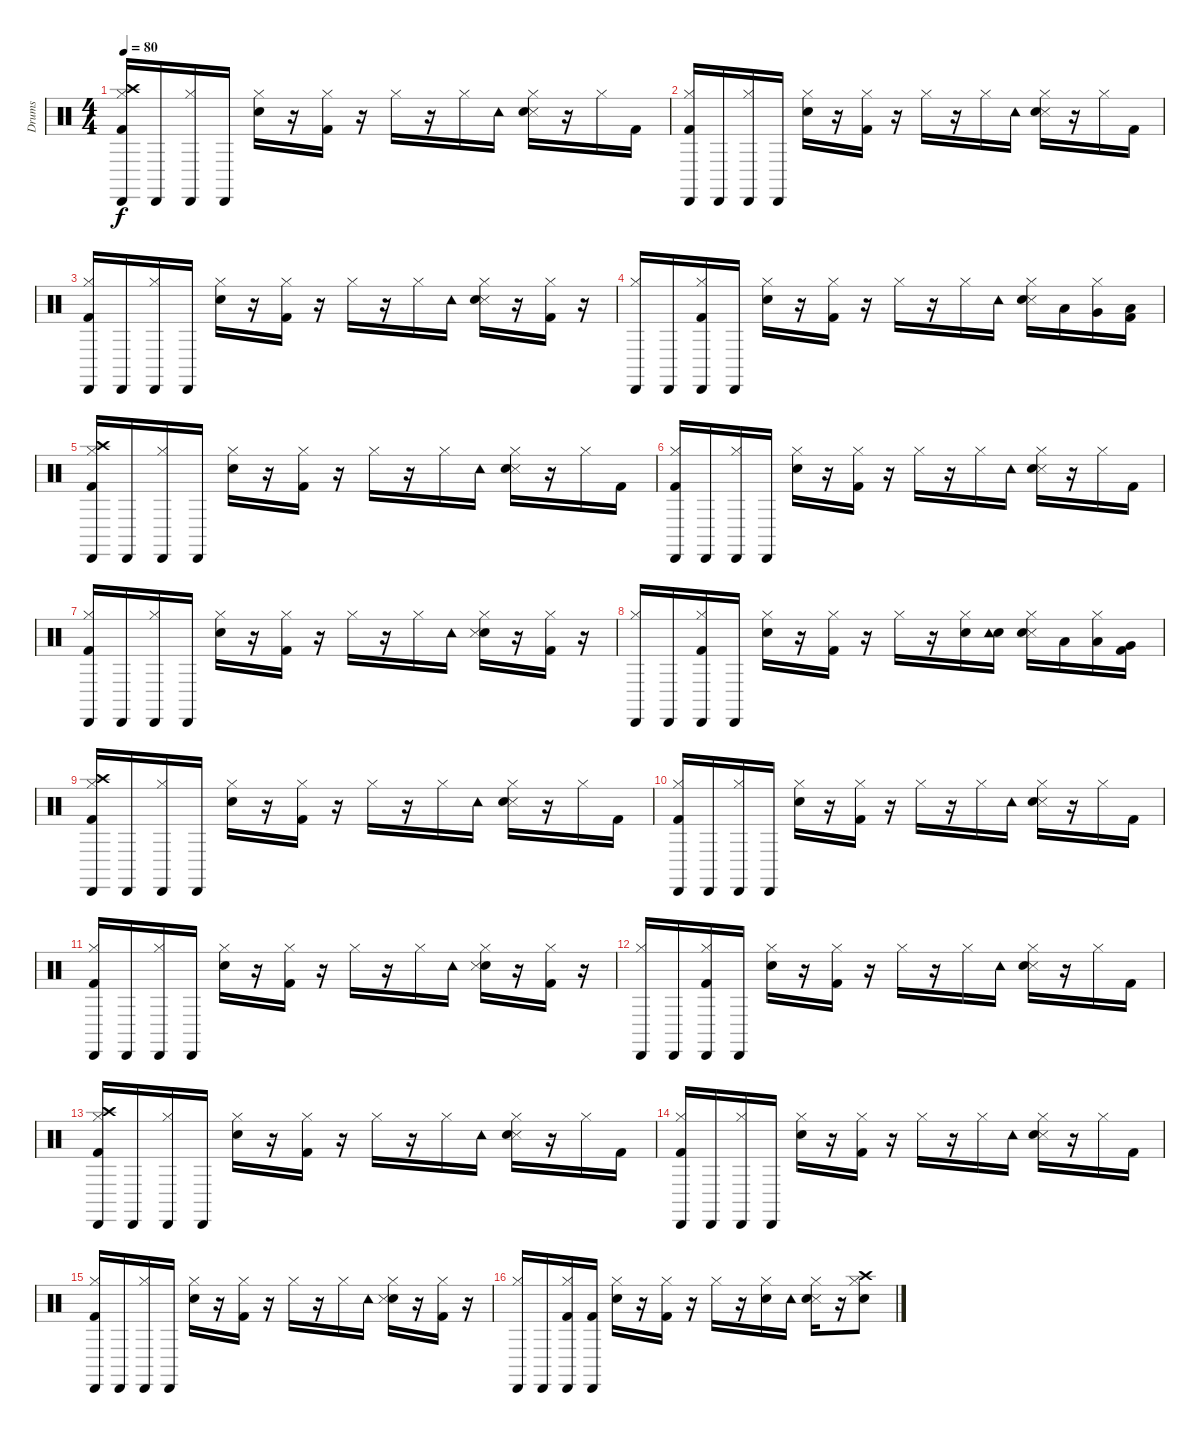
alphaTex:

\track ("Drums" "Drums") {instrument percussion}
\staff {score}
\articulation defaults
\ts (4 4)
\tempo 80
\clef neutral
\ks c
("Crash high (hit)" "Hi-Hat (closed)" "Kick (hit) 2" "Cabasa (hit)").16{dy f} "Cabasa (hit)".16 ("Cabasa (hit)" "Hi-Hat (closed)").16 "Cabasa (hit)".16 ("Hi-Hat (closed)" "Electric Snare (hit)").16 r.16 ("Kick (hit) 2" "Hi-Hat (closed)").16 r.16 "Hi-Hat (closed)".16 r.16 "Hi-Hat (closed)".16 "Tambourine (hit)".16 ("Metronome (hit)" "Snare (hit) 2" "Hi-Hat (closed)").16 r.16 "Hi-Hat (closed)".16 "Kick (hit) 2".16 |
("Hi-Hat (closed)" "Kick (hit) 2" "Cabasa (hit)").16 "Cabasa (hit)".16 ("Hi-Hat (closed)" "Cabasa (hit)").16 "Cabasa (hit)".16 ("Electric Snare (hit)" "Hi-Hat (closed)").16 r.16 ("Hi-Hat (closed)" "Kick (hit) 2").16 r.16 "Hi-Hat (closed)".16 r.16 "Hi-Hat (closed)".16 "Tambourine (hit)".16 ("Metronome (hit)" "Snare (hit) 2" "Hi-Hat (closed)").16 r.16 "Hi-Hat (closed)".16 "Kick (hit) 2".16 |
("Hi-Hat (closed)" "Kick (hit) 2" "Cabasa (hit)").16 "Cabasa (hit)".16 ("Cabasa (hit)" "Hi-Hat (closed)").16 "Cabasa (hit)".16 ("Hi-Hat (closed)" "Electric Snare (hit)").16 r.16 ("Kick (hit) 2" "Hi-Hat (closed)").16 r.16 "Hi-Hat (closed)".16 r.16 "Hi-Hat (closed)".16 "Tambourine (hit)".16 ("Metronome (hit)" "Snare (hit) 2" "Hi-Hat (closed)").16 r.16 ("Kick (hit) 2" "Hi-Hat (closed)").16 r.16 |
("Cabasa (hit)" "Hi-Hat (closed)").16 "Cabasa (hit)".16 ("Kick (hit) 2" "Hi-Hat (closed)" "Cabasa (hit)").16 "Cabasa (hit)".16 ("Hi-Hat (closed)" "Electric Snare (hit)").16 r.16 ("Kick (hit) 2" "Hi-Hat (closed)").16 r.16 "Hi-Hat (closed)".16 r.16 "Hi-Hat (closed)".16 "Tambourine (hit)".16 ("Metronome (hit)" "Snare (hit) 2" "Hi-Hat (closed)").16 "Low Tom (hit)".16 ("Very Low Tom (hit)" "Hi-Hat (closed)").16 ("Low Floor Tom (hit)" "Kick (hit) 2").16 |
("Crash high (hit)" "Hi-Hat (closed)" "Kick (hit) 2" "Cabasa (hit)").16 "Cabasa (hit)".16 ("Cabasa (hit)" "Hi-Hat (closed)").16 "Cabasa (hit)".16 ("Hi-Hat (closed)" "Electric Snare (hit)").16 r.16 ("Kick (hit) 2" "Hi-Hat (closed)").16 r.16 "Hi-Hat (closed)".16 r.16 "Hi-Hat (closed)".16 "Tambourine (hit)".16 ("Metronome (hit)" "Hi-Hat (closed)" "Snare (hit) 2").16 r.16 "Hi-Hat (closed)".16 "Kick (hit) 2".16 |
("Kick (hit) 2" "Hi-Hat (closed)" "Cabasa (hit)").16 "Cabasa (hit)".16 ("Cabasa (hit)" "Hi-Hat (closed)").16 "Cabasa (hit)".16 ("Hi-Hat (closed)" "Electric Snare (hit)").16 r.16 ("Kick (hit) 2" "Hi-Hat (closed)").16 r.16 "Hi-Hat (closed)".16 r.16 "Hi-Hat (closed)".16 "Tambourine (hit)".16 ("Metronome (hit)" "Snare (hit) 2" "Hi-Hat (closed)").16 r.16 "Hi-Hat (closed)".16 "Kick (hit) 2".16 |
("Hi-Hat (closed)" "Kick (hit) 2" "Cabasa (hit)").16 "Cabasa (hit)".16 ("Cabasa (hit)" "Hi-Hat (closed)").16 "Cabasa (hit)".16 ("Electric Snare (hit)" "Hi-Hat (closed)").16 r.16 ("Hi-Hat (closed)" "Kick (hit) 2").16 r.16 "Hi-Hat (closed)".16 r.16 "Hi-Hat (closed)".16 "Tambourine (hit)".16 ("Hi-Hat (closed)" "Snare (hit) 2" "Metronome (hit)").16 r.16 ("Kick (hit) 2" "Hi-Hat (closed)").16 r.16 |
("Cabasa (hit)" "Hi-Hat (closed)").16 "Cabasa (hit)".16 ("Kick (hit) 2" "Hi-Hat (closed)" "Cabasa (hit)").16 "Cabasa (hit)".16 ("Hi-Hat (closed)" "Electric Snare (hit)").16 r.16 ("Kick (hit) 2" "Hi-Hat (closed)").16 r.16 "Hi-Hat (closed)".16 r.16 ("Snare (hit) 2" "Hi-Hat (closed)").16 ("Snare (hit) 2" "Tambourine (hit)").16 ("Metronome (hit)" "Snare (hit) 2" "Hi-Hat (closed)").16 "Low Tom (hit)".16 ("Low Tom (hit)" "Hi-Hat (closed)").16 ("Very Low Tom (hit)" "Kick (hit) 2").16 |
("Crash high (hit)" "Hi-Hat (closed)" "Kick (hit) 2" "Cabasa (hit)").16 "Cabasa (hit)".16 ("Cabasa (hit)" "Hi-Hat (closed)").16 "Cabasa (hit)".16 ("Hi-Hat (closed)" "Electric Snare (hit)").16 r.16 ("Kick (hit) 2" "Hi-Hat (closed)").16 r.16 "Hi-Hat (closed)".16 r.16 "Hi-Hat (closed)".16 "Tambourine (hit)".16 ("Metronome (hit)" "Hi-Hat (closed)" "Snare (hit) 2").16 r.16 "Hi-Hat (closed)".16 "Kick (hit) 2".16 |
("Kick (hit) 2" "Hi-Hat (closed)" "Cabasa (hit)").16 "Cabasa (hit)".16 ("Cabasa (hit)" "Hi-Hat (closed)").16 "Cabasa (hit)".16 ("Hi-Hat (closed)" "Electric Snare (hit)").16 r.16 ("Kick (hit) 2" "Hi-Hat (closed)").16 r.16 "Hi-Hat (closed)".16 r.16 "Hi-Hat (closed)".16 "Tambourine (hit)".16 ("Metronome (hit)" "Snare (hit) 2" "Hi-Hat (closed)").16 r.16 "Hi-Hat (closed)".16 "Kick (hit) 2".16 |
("Hi-Hat (closed)" "Kick (hit) 2" "Cabasa (hit)").16 "Cabasa (hit)".16 ("Cabasa (hit)" "Hi-Hat (closed)").16 "Cabasa (hit)".16 ("Electric Snare (hit)" "Hi-Hat (closed)").16 r.16 ("Hi-Hat (closed)" "Kick (hit) 2").16 r.16 "Hi-Hat (closed)".16 r.16 "Hi-Hat (closed)".16 "Tambourine (hit)".16 ("Hi-Hat (closed)" "Snare (hit) 2" "Metronome (hit)").16 r.16 ("Kick (hit) 2" "Hi-Hat (closed)").16 r.16 |
("Cabasa (hit)" "Hi-Hat (closed)").16 "Cabasa (hit)".16 ("Kick (hit) 2" "Hi-Hat (closed)" "Cabasa (hit)").16 "Cabasa (hit)".16 ("Hi-Hat (closed)" "Electric Snare (hit)").16 r.16 ("Kick (hit) 2" "Hi-Hat (closed)").16 r.16 "Hi-Hat (closed)".16 r.16 "Hi-Hat (closed)".16 "Tambourine (hit)".16 ("Metronome (hit)" "Snare (hit) 2" "Hi-Hat (closed)").16 r.16 "Hi-Hat (closed)".16 "Kick (hit) 2".16 |
("Crash high (hit)" "Hi-Hat (closed)" "Kick (hit) 2" "Cabasa (hit)").16 "Cabasa (hit)".16 ("Cabasa (hit)" "Hi-Hat (closed)").16 "Cabasa (hit)".16 ("Hi-Hat (closed)" "Electric Snare (hit)").16 r.16 ("Kick (hit) 2" "Hi-Hat (closed)").16 r.16 "Hi-Hat (closed)".16 r.16 "Hi-Hat (closed)".16 "Tambourine (hit)".16 ("Metronome (hit)" "Hi-Hat (closed)" "Snare (hit) 2").16 r.16 "Hi-Hat (closed)".16 "Kick (hit) 2".16 |
("Kick (hit) 2" "Hi-Hat (closed)" "Cabasa (hit)").16 "Cabasa (hit)".16 ("Cabasa (hit)" "Hi-Hat (closed)").16 "Cabasa (hit)".16 ("Hi-Hat (closed)" "Electric Snare (hit)").16 r.16 ("Kick (hit) 2" "Hi-Hat (closed)").16 r.16 "Hi-Hat (closed)".16 r.16 "Hi-Hat (closed)".16 "Tambourine (hit)".16 ("Metronome (hit)" "Snare (hit) 2" "Hi-Hat (closed)").16 r.16 "Hi-Hat (closed)".16 "Kick (hit) 2".16 |
("Hi-Hat (closed)" "Kick (hit) 2" "Cabasa (hit)").16 "Cabasa (hit)".16 ("Cabasa (hit)" "Hi-Hat (closed)").16 "Cabasa (hit)".16 ("Electric Snare (hit)" "Hi-Hat (closed)").16 r.16 ("Hi-Hat (closed)" "Kick (hit) 2").16 r.16 "Hi-Hat (closed)".16 r.16 "Hi-Hat (closed)".16 "Tambourine (hit)".16 ("Hi-Hat (closed)" "Snare (hit) 2" "Metronome (hit)").16 r.16 ("Kick (hit) 2" "Hi-Hat (closed)").16 r.16 |
("Cabasa (hit)" "Hi-Hat (closed)").16 "Cabasa (hit)".16 ("Kick (hit) 2" "Hi-Hat (closed)" "Cabasa (hit)").16 ("Kick (hit) 2" "Cabasa (hit)").16 ("Hi-Hat (closed)" "Electric Snare (hit)").16 r.16 ("Kick (hit) 2" "Hi-Hat (closed)").16 r.16 "Hi-Hat (closed)".16 r.16 ("Snare (hit) 2" "Hi-Hat (closed)").16 "Tambourine (hit)".16 ("Metronome (hit)" "Snare (hit) 2" "Hi-Hat (closed)").16 r.16 ("Crash high (hit)" "Snare (hit) 2" "Hi-Hat (closed)").8
